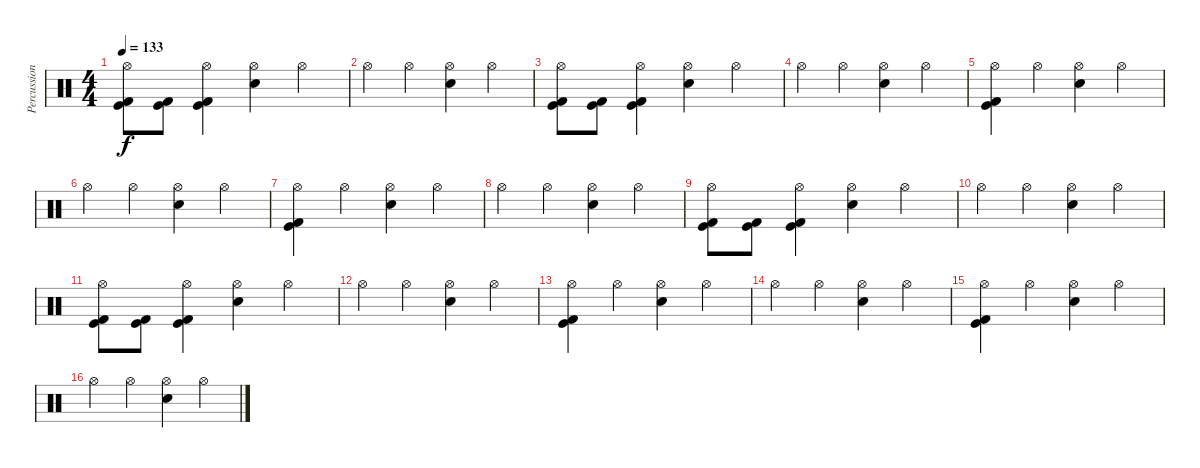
\track ("Percussion" "Percussion") {instrument percussion}
\staff {score}
\articulation defaults
\ts (4 4)
\tempo 133
\clef neutral
\ks c
("Hi-Hat (open)" "Kick (hit)" "Kick (hit) 2").8{dy f} ("Kick (hit)" "Kick (hit) 2").8 ("Hi-Hat (open)" "Kick (hit)" "Kick (hit) 2").4 ("Hi-Hat (open)" "Electric Snare (hit)").4 "Hi-Hat (open)".4 |
"Hi-Hat (open)".4 "Hi-Hat (open)".4 ("Hi-Hat (open)" "Electric Snare (hit)").4 "Hi-Hat (open)".4 |
("Hi-Hat (open)" "Kick (hit)" "Kick (hit) 2").8 ("Kick (hit)" "Kick (hit) 2").8 ("Hi-Hat (open)" "Kick (hit)" "Kick (hit) 2").4 ("Hi-Hat (open)" "Electric Snare (hit)").4 "Hi-Hat (open)".4 |
"Hi-Hat (open)".4 "Hi-Hat (open)".4 ("Hi-Hat (open)" "Electric Snare (hit)").4 "Hi-Hat (open)".4 |
("Hi-Hat (open)" "Kick (hit)" "Kick (hit) 2").4 "Hi-Hat (open)".4 ("Hi-Hat (open)" "Snare (hit) 2").4 "Hi-Hat (open)".4 |
"Hi-Hat (open)".4 "Hi-Hat (open)".4 ("Hi-Hat (open)" "Electric Snare (hit)").4 "Hi-Hat (open)".4 |
("Hi-Hat (open)" "Kick (hit)" "Kick (hit) 2").4 "Hi-Hat (open)".4 ("Hi-Hat (open)" "Electric Snare (hit)").4 "Hi-Hat (open)".4 |
"Hi-Hat (open)".4 "Hi-Hat (open)".4 ("Hi-Hat (open)" "Electric Snare (hit)").4 "Hi-Hat (open)".4 |
("Hi-Hat (open)" "Kick (hit)" "Kick (hit) 2").8 ("Kick (hit)" "Kick (hit) 2").8 ("Hi-Hat (open)" "Kick (hit)" "Kick (hit) 2").4 ("Hi-Hat (open)" "Electric Snare (hit)").4 "Hi-Hat (open)".4 |
"Hi-Hat (open)".4 "Hi-Hat (open)".4 ("Hi-Hat (open)" "Electric Snare (hit)").4 "Hi-Hat (open)".4 |
("Hi-Hat (open)" "Kick (hit)" "Kick (hit) 2").8 ("Kick (hit)" "Kick (hit) 2").8 ("Hi-Hat (open)" "Kick (hit)" "Kick (hit) 2").4 ("Hi-Hat (open)" "Electric Snare (hit)").4 "Hi-Hat (open)".4 |
"Hi-Hat (open)".4 "Hi-Hat (open)".4 ("Hi-Hat (open)" "Electric Snare (hit)").4 "Hi-Hat (open)".4 |
("Hi-Hat (open)" "Kick (hit)" "Kick (hit) 2").4 "Hi-Hat (open)".4 ("Hi-Hat (open)" "Electric Snare (hit)").4 "Hi-Hat (open)".4 |
"Hi-Hat (open)".4 "Hi-Hat (open)".4 ("Hi-Hat (open)" "Electric Snare (hit)").4 "Hi-Hat (open)".4 |
("Hi-Hat (open)" "Kick (hit)" "Kick (hit) 2").4 "Hi-Hat (open)".4 ("Hi-Hat (open)" "Electric Snare (hit)").4 "Hi-Hat (open)".4 |
"Hi-Hat (open)".4 "Hi-Hat (open)".4 ("Hi-Hat (open)" "Electric Snare (hit)").4 "Hi-Hat (open)".4
